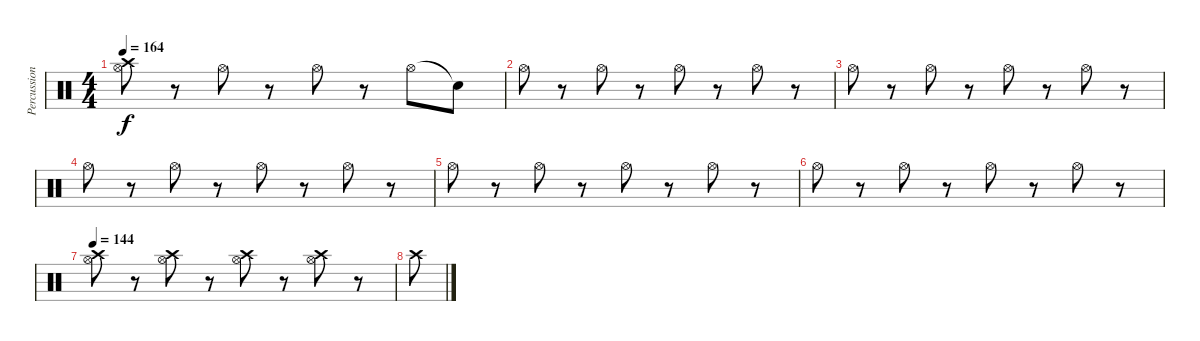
\track ("Percussion" "Percussion") {instrument percussion}
\staff {score}
\articulation defaults
\ts (4 4)
\tempo 164
\clef neutral
\ks c
("Hi-Hat (open)" "Crash high (hit)").8{dy f} r.8 "Hi-Hat (open)".8 r.8 "Hi-Hat (open)".8 r.8 "Hi-Hat (open)".8 "Snare (hit)"{t}.8 |
"Hi-Hat (open)".8 r.8 "Hi-Hat (open)".8 r.8 "Hi-Hat (open)".8 r.8 "Hi-Hat (open)".8 r.8 |
"Hi-Hat (open)".8 r.8 "Hi-Hat (open)".8 r.8 "Hi-Hat (open)".8 r.8 "Hi-Hat (open)".8 r.8 |
"Hi-Hat (open)".8 r.8 "Hi-Hat (open)".8 r.8 "Hi-Hat (open)".8 r.8 "Hi-Hat (open)".8 r.8 |
"Hi-Hat (open)".8 r.8 "Hi-Hat (open)".8 r.8 "Hi-Hat (open)".8 r.8 "Hi-Hat (open)".8 r.8 |
"Hi-Hat (open)".8 r.8 "Hi-Hat (open)".8 r.8 "Hi-Hat (open)".8 r.8 "Hi-Hat (open)".8 r.8 |
\tempo 144
("Hi-Hat (open)" "Crash high (hit)").8 r.8 ("Hi-Hat (open)" "Crash high (hit)").8 r.8 ("Hi-Hat (open)" "Crash high (hit)").8 r.8 ("Hi-Hat (open)" "Crash high (hit)").8 r.8 |
"Crash high (hit)".8
